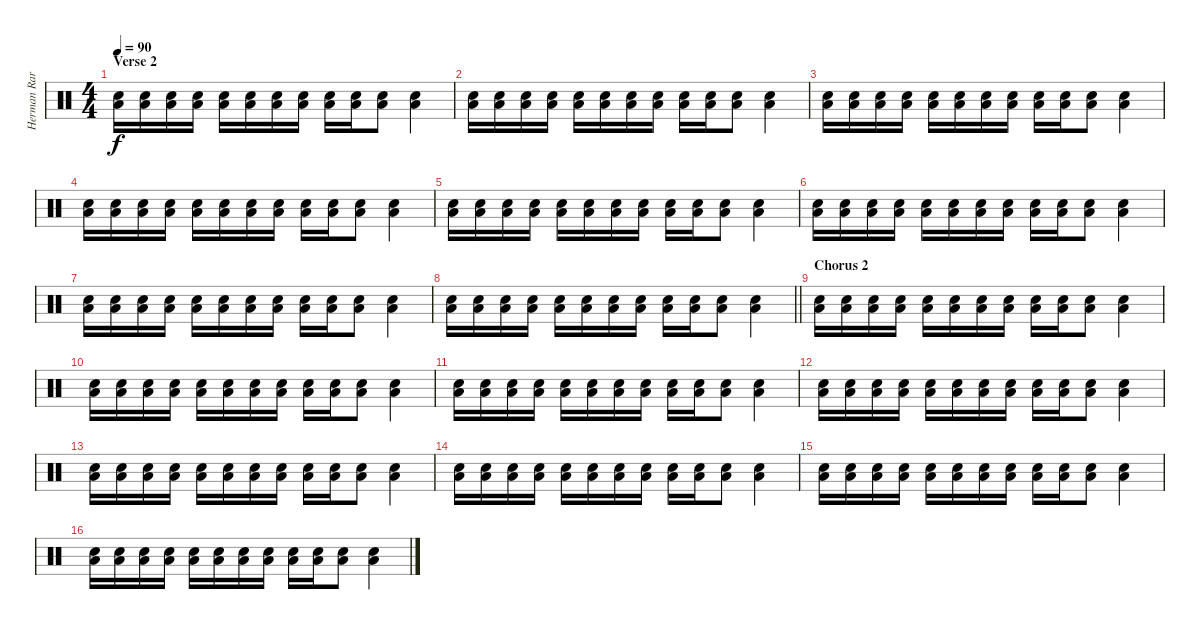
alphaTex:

\track ("Herman Rarebell (Drums)" "Herman Rar") {instrument percussion}
\staff {score}
\articulation defaults
\ts (4 4)
\section ("" "Verse 2")
\tempo 90
\clef neutral
\ks c
("Electric Snare (hit)" "Low Floor Tom (hit)").16{dy f} ("Electric Snare (hit)" "Low Floor Tom (hit)").16 ("Electric Snare (hit)" "Low Floor Tom (hit)").16 ("Electric Snare (hit)" "Low Floor Tom (hit)").16 ("Electric Snare (hit)" "Low Floor Tom (hit)").16 ("Electric Snare (hit)" "Low Floor Tom (hit)").16 ("Electric Snare (hit)" "Low Floor Tom (hit)").16 ("Electric Snare (hit)" "Low Floor Tom (hit)").16 ("Electric Snare (hit)" "Low Floor Tom (hit)").16 ("Electric Snare (hit)" "Low Floor Tom (hit)").16 ("Electric Snare (hit)" "Low Floor Tom (hit)").8 ("Electric Snare (hit)" "Low Floor Tom (hit)").4{bd 240} |
("Electric Snare (hit)" "Low Floor Tom (hit)").16 ("Electric Snare (hit)" "Low Floor Tom (hit)").16 ("Electric Snare (hit)" "Low Floor Tom (hit)").16 ("Electric Snare (hit)" "Low Floor Tom (hit)").16 ("Electric Snare (hit)" "Low Floor Tom (hit)").16 ("Electric Snare (hit)" "Low Floor Tom (hit)").16 ("Electric Snare (hit)" "Low Floor Tom (hit)").16 ("Electric Snare (hit)" "Low Floor Tom (hit)").16 ("Electric Snare (hit)" "Low Floor Tom (hit)").16 ("Electric Snare (hit)" "Low Floor Tom (hit)").16 ("Electric Snare (hit)" "Low Floor Tom (hit)").8 ("Electric Snare (hit)" "Low Floor Tom (hit)").4{bd 240} |
("Electric Snare (hit)" "Low Floor Tom (hit)").16 ("Electric Snare (hit)" "Low Floor Tom (hit)").16 ("Electric Snare (hit)" "Low Floor Tom (hit)").16 ("Electric Snare (hit)" "Low Floor Tom (hit)").16 ("Electric Snare (hit)" "Low Floor Tom (hit)").16 ("Electric Snare (hit)" "Low Floor Tom (hit)").16 ("Electric Snare (hit)" "Low Floor Tom (hit)").16 ("Electric Snare (hit)" "Low Floor Tom (hit)").16 ("Electric Snare (hit)" "Low Floor Tom (hit)").16 ("Electric Snare (hit)" "Low Floor Tom (hit)").16 ("Electric Snare (hit)" "Low Floor Tom (hit)").8 ("Electric Snare (hit)" "Low Floor Tom (hit)").4{bd 240} |
("Electric Snare (hit)" "Low Floor Tom (hit)").16 ("Electric Snare (hit)" "Low Floor Tom (hit)").16 ("Electric Snare (hit)" "Low Floor Tom (hit)").16 ("Electric Snare (hit)" "Low Floor Tom (hit)").16 ("Electric Snare (hit)" "Low Floor Tom (hit)").16 ("Electric Snare (hit)" "Low Floor Tom (hit)").16 ("Electric Snare (hit)" "Low Floor Tom (hit)").16 ("Electric Snare (hit)" "Low Floor Tom (hit)").16 ("Electric Snare (hit)" "Low Floor Tom (hit)").16 ("Electric Snare (hit)" "Low Floor Tom (hit)").16 ("Electric Snare (hit)" "Low Floor Tom (hit)").8 ("Electric Snare (hit)" "Low Floor Tom (hit)").4{bd 240} |
("Electric Snare (hit)" "Low Floor Tom (hit)").16 ("Electric Snare (hit)" "Low Floor Tom (hit)").16 ("Electric Snare (hit)" "Low Floor Tom (hit)").16 ("Electric Snare (hit)" "Low Floor Tom (hit)").16 ("Electric Snare (hit)" "Low Floor Tom (hit)").16 ("Electric Snare (hit)" "Low Floor Tom (hit)").16 ("Electric Snare (hit)" "Low Floor Tom (hit)").16 ("Electric Snare (hit)" "Low Floor Tom (hit)").16 ("Electric Snare (hit)" "Low Floor Tom (hit)").16 ("Electric Snare (hit)" "Low Floor Tom (hit)").16 ("Electric Snare (hit)" "Low Floor Tom (hit)").8 ("Electric Snare (hit)" "Low Floor Tom (hit)").4{bd 240} |
("Electric Snare (hit)" "Low Floor Tom (hit)").16 ("Electric Snare (hit)" "Low Floor Tom (hit)").16 ("Electric Snare (hit)" "Low Floor Tom (hit)").16 ("Electric Snare (hit)" "Low Floor Tom (hit)").16 ("Electric Snare (hit)" "Low Floor Tom (hit)").16 ("Electric Snare (hit)" "Low Floor Tom (hit)").16 ("Electric Snare (hit)" "Low Floor Tom (hit)").16 ("Electric Snare (hit)" "Low Floor Tom (hit)").16 ("Electric Snare (hit)" "Low Floor Tom (hit)").16 ("Electric Snare (hit)" "Low Floor Tom (hit)").16 ("Electric Snare (hit)" "Low Floor Tom (hit)").8 ("Electric Snare (hit)" "Low Floor Tom (hit)").4{bd 240} |
("Electric Snare (hit)" "Low Floor Tom (hit)").16 ("Electric Snare (hit)" "Low Floor Tom (hit)").16 ("Electric Snare (hit)" "Low Floor Tom (hit)").16 ("Electric Snare (hit)" "Low Floor Tom (hit)").16 ("Electric Snare (hit)" "Low Floor Tom (hit)").16 ("Electric Snare (hit)" "Low Floor Tom (hit)").16 ("Electric Snare (hit)" "Low Floor Tom (hit)").16 ("Electric Snare (hit)" "Low Floor Tom (hit)").16 ("Electric Snare (hit)" "Low Floor Tom (hit)").16 ("Electric Snare (hit)" "Low Floor Tom (hit)").16 ("Electric Snare (hit)" "Low Floor Tom (hit)").8 ("Electric Snare (hit)" "Low Floor Tom (hit)").4{bd 240} |
\barLineRight lightlight
("Electric Snare (hit)" "Low Floor Tom (hit)").16 ("Electric Snare (hit)" "Low Floor Tom (hit)").16 ("Electric Snare (hit)" "Low Floor Tom (hit)").16 ("Electric Snare (hit)" "Low Floor Tom (hit)").16 ("Electric Snare (hit)" "Low Floor Tom (hit)").16 ("Electric Snare (hit)" "Low Floor Tom (hit)").16 ("Electric Snare (hit)" "Low Floor Tom (hit)").16 ("Electric Snare (hit)" "Low Floor Tom (hit)").16 ("Electric Snare (hit)" "Low Floor Tom (hit)").16 ("Electric Snare (hit)" "Low Floor Tom (hit)").16 ("Electric Snare (hit)" "Low Floor Tom (hit)").8 ("Electric Snare (hit)" "Low Floor Tom (hit)").4{bd 240} |
\section ("" "Chorus 2")
("Electric Snare (hit)" "Low Floor Tom (hit)").16 ("Electric Snare (hit)" "Low Floor Tom (hit)").16 ("Electric Snare (hit)" "Low Floor Tom (hit)").16 ("Electric Snare (hit)" "Low Floor Tom (hit)").16 ("Electric Snare (hit)" "Low Floor Tom (hit)").16 ("Electric Snare (hit)" "Low Floor Tom (hit)").16 ("Electric Snare (hit)" "Low Floor Tom (hit)").16 ("Electric Snare (hit)" "Low Floor Tom (hit)").16 ("Electric Snare (hit)" "Low Floor Tom (hit)").16 ("Electric Snare (hit)" "Low Floor Tom (hit)").16 ("Electric Snare (hit)" "Low Floor Tom (hit)").8 ("Electric Snare (hit)" "Low Floor Tom (hit)").4{bd 240} |
("Electric Snare (hit)" "Low Floor Tom (hit)").16 ("Electric Snare (hit)" "Low Floor Tom (hit)").16 ("Electric Snare (hit)" "Low Floor Tom (hit)").16 ("Electric Snare (hit)" "Low Floor Tom (hit)").16 ("Electric Snare (hit)" "Low Floor Tom (hit)").16 ("Electric Snare (hit)" "Low Floor Tom (hit)").16 ("Electric Snare (hit)" "Low Floor Tom (hit)").16 ("Electric Snare (hit)" "Low Floor Tom (hit)").16 ("Electric Snare (hit)" "Low Floor Tom (hit)").16 ("Electric Snare (hit)" "Low Floor Tom (hit)").16 ("Electric Snare (hit)" "Low Floor Tom (hit)").8 ("Electric Snare (hit)" "Low Floor Tom (hit)").4{bd 240} |
("Electric Snare (hit)" "Low Floor Tom (hit)").16 ("Electric Snare (hit)" "Low Floor Tom (hit)").16 ("Electric Snare (hit)" "Low Floor Tom (hit)").16 ("Electric Snare (hit)" "Low Floor Tom (hit)").16 ("Electric Snare (hit)" "Low Floor Tom (hit)").16 ("Electric Snare (hit)" "Low Floor Tom (hit)").16 ("Electric Snare (hit)" "Low Floor Tom (hit)").16 ("Electric Snare (hit)" "Low Floor Tom (hit)").16 ("Electric Snare (hit)" "Low Floor Tom (hit)").16 ("Electric Snare (hit)" "Low Floor Tom (hit)").16 ("Electric Snare (hit)" "Low Floor Tom (hit)").8 ("Electric Snare (hit)" "Low Floor Tom (hit)").4{bd 240} |
("Electric Snare (hit)" "Low Floor Tom (hit)").16 ("Electric Snare (hit)" "Low Floor Tom (hit)").16 ("Electric Snare (hit)" "Low Floor Tom (hit)").16 ("Electric Snare (hit)" "Low Floor Tom (hit)").16 ("Electric Snare (hit)" "Low Floor Tom (hit)").16 ("Electric Snare (hit)" "Low Floor Tom (hit)").16 ("Electric Snare (hit)" "Low Floor Tom (hit)").16 ("Electric Snare (hit)" "Low Floor Tom (hit)").16 ("Electric Snare (hit)" "Low Floor Tom (hit)").16 ("Electric Snare (hit)" "Low Floor Tom (hit)").16 ("Electric Snare (hit)" "Low Floor Tom (hit)").8 ("Electric Snare (hit)" "Low Floor Tom (hit)").4{bd 240} |
("Electric Snare (hit)" "Low Floor Tom (hit)").16 ("Electric Snare (hit)" "Low Floor Tom (hit)").16 ("Electric Snare (hit)" "Low Floor Tom (hit)").16 ("Electric Snare (hit)" "Low Floor Tom (hit)").16 ("Electric Snare (hit)" "Low Floor Tom (hit)").16 ("Electric Snare (hit)" "Low Floor Tom (hit)").16 ("Electric Snare (hit)" "Low Floor Tom (hit)").16 ("Electric Snare (hit)" "Low Floor Tom (hit)").16 ("Electric Snare (hit)" "Low Floor Tom (hit)").16 ("Electric Snare (hit)" "Low Floor Tom (hit)").16 ("Electric Snare (hit)" "Low Floor Tom (hit)").8 ("Electric Snare (hit)" "Low Floor Tom (hit)").4{bd 240} |
("Electric Snare (hit)" "Low Floor Tom (hit)").16 ("Electric Snare (hit)" "Low Floor Tom (hit)").16 ("Electric Snare (hit)" "Low Floor Tom (hit)").16 ("Electric Snare (hit)" "Low Floor Tom (hit)").16 ("Electric Snare (hit)" "Low Floor Tom (hit)").16 ("Electric Snare (hit)" "Low Floor Tom (hit)").16 ("Electric Snare (hit)" "Low Floor Tom (hit)").16 ("Electric Snare (hit)" "Low Floor Tom (hit)").16 ("Electric Snare (hit)" "Low Floor Tom (hit)").16 ("Electric Snare (hit)" "Low Floor Tom (hit)").16 ("Electric Snare (hit)" "Low Floor Tom (hit)").8 ("Electric Snare (hit)" "Low Floor Tom (hit)").4{bd 240} |
("Electric Snare (hit)" "Low Floor Tom (hit)").16 ("Electric Snare (hit)" "Low Floor Tom (hit)").16 ("Electric Snare (hit)" "Low Floor Tom (hit)").16 ("Electric Snare (hit)" "Low Floor Tom (hit)").16 ("Electric Snare (hit)" "Low Floor Tom (hit)").16 ("Electric Snare (hit)" "Low Floor Tom (hit)").16 ("Electric Snare (hit)" "Low Floor Tom (hit)").16 ("Electric Snare (hit)" "Low Floor Tom (hit)").16 ("Electric Snare (hit)" "Low Floor Tom (hit)").16 ("Electric Snare (hit)" "Low Floor Tom (hit)").16 ("Electric Snare (hit)" "Low Floor Tom (hit)").8 ("Electric Snare (hit)" "Low Floor Tom (hit)").4{bd 240} |
("Electric Snare (hit)" "Low Floor Tom (hit)").16 ("Electric Snare (hit)" "Low Floor Tom (hit)").16 ("Electric Snare (hit)" "Low Floor Tom (hit)").16 ("Electric Snare (hit)" "Low Floor Tom (hit)").16 ("Electric Snare (hit)" "Low Floor Tom (hit)").16 ("Electric Snare (hit)" "Low Floor Tom (hit)").16 ("Electric Snare (hit)" "Low Floor Tom (hit)").16 ("Electric Snare (hit)" "Low Floor Tom (hit)").16 ("Electric Snare (hit)" "Low Floor Tom (hit)").16 ("Electric Snare (hit)" "Low Floor Tom (hit)").16 ("Electric Snare (hit)" "Low Floor Tom (hit)").8 ("Electric Snare (hit)" "Low Floor Tom (hit)").4{bd 240}
